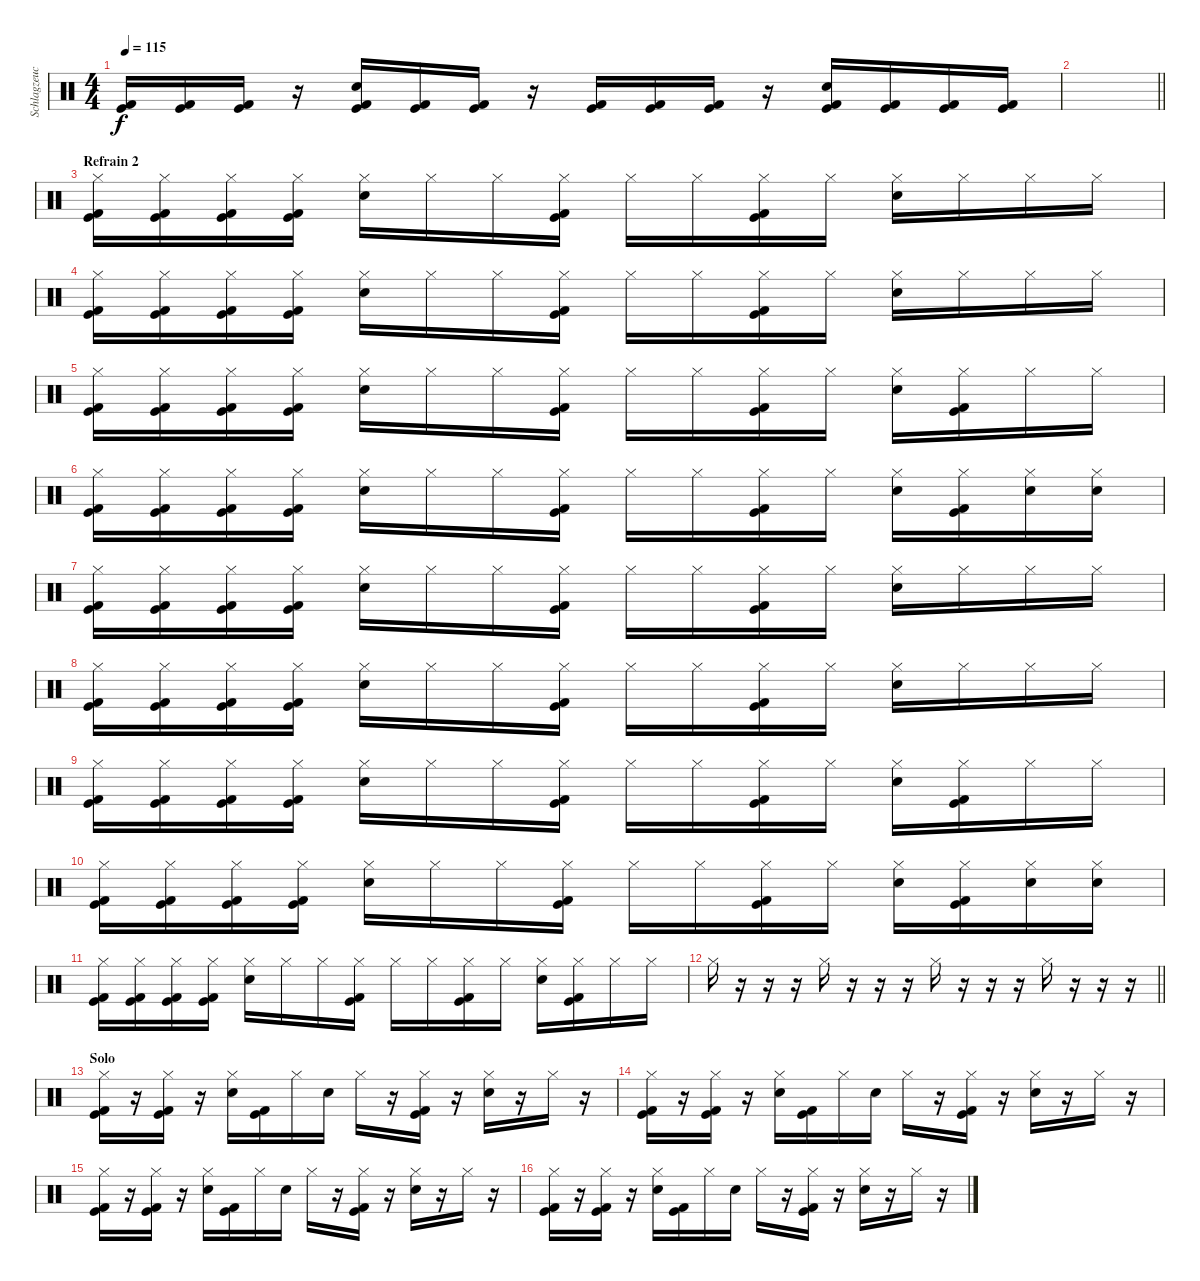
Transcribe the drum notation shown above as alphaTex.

\track ("Schlagzeuch" "Schlagzeuc") {instrument percussion}
\staff {score}
\articulation defaults
\ts (4 4)
\tempo 115
\clef neutral
\ks c
("Kick (hit)" "Kick (hit) 2").16{dy f} ("Kick (hit)" "Kick (hit) 2").16 ("Kick (hit)" "Kick (hit) 2").16 r.16 ("Kick (hit)" "Kick (hit) 2" "Electric Snare (hit)").16 ("Kick (hit)" "Kick (hit) 2").16 ("Kick (hit)" "Kick (hit) 2").16 r.16 ("Kick (hit)" "Kick (hit) 2").16 ("Kick (hit)" "Kick (hit) 2").16 ("Kick (hit)" "Kick (hit) 2").16 r.16 ("Kick (hit)" "Kick (hit) 2" "Electric Snare (hit)").16 ("Kick (hit)" "Kick (hit) 2").16 ("Kick (hit)" "Kick (hit) 2").16 ("Kick (hit)" "Kick (hit) 2").16 |
\barLineRight lightlight
|
\section ("" "Refrain 2")
("Hi-Hat (closed)" "Kick (hit)" "Kick (hit) 2").16 ("Hi-Hat (closed)" "Kick (hit)" "Kick (hit) 2").16 ("Hi-Hat (closed)" "Kick (hit)" "Kick (hit) 2").16 ("Hi-Hat (closed)" "Kick (hit)" "Kick (hit) 2").16 ("Hi-Hat (closed)" "Electric Snare (hit)").16 "Hi-Hat (closed)".16 "Hi-Hat (closed)".16 ("Hi-Hat (closed)" "Kick (hit)" "Kick (hit) 2").16 "Hi-Hat (closed)".16 "Hi-Hat (closed)".16 ("Hi-Hat (closed)" "Kick (hit)" "Kick (hit) 2").16 "Hi-Hat (closed)".16 ("Hi-Hat (closed)" "Electric Snare (hit)").16 "Hi-Hat (closed)".16 "Hi-Hat (closed)".16 "Hi-Hat (closed)".16 |
("Hi-Hat (closed)" "Kick (hit)" "Kick (hit) 2").16 ("Hi-Hat (closed)" "Kick (hit)" "Kick (hit) 2").16 ("Hi-Hat (closed)" "Kick (hit)" "Kick (hit) 2").16 ("Hi-Hat (closed)" "Kick (hit)" "Kick (hit) 2").16 ("Hi-Hat (closed)" "Electric Snare (hit)").16 "Hi-Hat (closed)".16 "Hi-Hat (closed)".16 ("Hi-Hat (closed)" "Kick (hit)" "Kick (hit) 2").16 "Hi-Hat (closed)".16 "Hi-Hat (closed)".16 ("Hi-Hat (closed)" "Kick (hit)" "Kick (hit) 2").16 "Hi-Hat (closed)".16 ("Hi-Hat (closed)" "Electric Snare (hit)").16 "Hi-Hat (closed)".16 "Hi-Hat (closed)".16 "Hi-Hat (closed)".16 |
("Hi-Hat (closed)" "Kick (hit)" "Kick (hit) 2").16 ("Hi-Hat (closed)" "Kick (hit)" "Kick (hit) 2").16 ("Hi-Hat (closed)" "Kick (hit)" "Kick (hit) 2").16 ("Hi-Hat (closed)" "Kick (hit)" "Kick (hit) 2").16 ("Hi-Hat (closed)" "Electric Snare (hit)").16 "Hi-Hat (closed)".16 "Hi-Hat (closed)".16 ("Hi-Hat (closed)" "Kick (hit)" "Kick (hit) 2").16 "Hi-Hat (closed)".16 "Hi-Hat (closed)".16 ("Hi-Hat (closed)" "Kick (hit)" "Kick (hit) 2").16 "Hi-Hat (closed)".16 ("Hi-Hat (closed)" "Electric Snare (hit)").16 ("Hi-Hat (closed)" "Kick (hit)" "Kick (hit) 2").16 "Hi-Hat (closed)".16 "Hi-Hat (closed)".16 |
("Hi-Hat (closed)" "Kick (hit)" "Kick (hit) 2").16 ("Hi-Hat (closed)" "Kick (hit)" "Kick (hit) 2").16 ("Hi-Hat (closed)" "Kick (hit)" "Kick (hit) 2").16 ("Hi-Hat (closed)" "Kick (hit)" "Kick (hit) 2").16 ("Hi-Hat (closed)" "Electric Snare (hit)").16 "Hi-Hat (closed)".16 "Hi-Hat (closed)".16 ("Hi-Hat (closed)" "Kick (hit)" "Kick (hit) 2").16 "Hi-Hat (closed)".16 "Hi-Hat (closed)".16 ("Hi-Hat (closed)" "Kick (hit)" "Kick (hit) 2").16 "Hi-Hat (closed)".16 ("Hi-Hat (closed)" "Electric Snare (hit)").16 ("Hi-Hat (closed)" "Kick (hit)" "Kick (hit) 2").16 ("Hi-Hat (closed)" "Electric Snare (hit)").16 ("Hi-Hat (closed)" "Electric Snare (hit)").16 |
("Hi-Hat (closed)" "Kick (hit)" "Kick (hit) 2").16 ("Hi-Hat (closed)" "Kick (hit)" "Kick (hit) 2").16 ("Hi-Hat (closed)" "Kick (hit)" "Kick (hit) 2").16 ("Hi-Hat (closed)" "Kick (hit)" "Kick (hit) 2").16 ("Hi-Hat (closed)" "Electric Snare (hit)").16 "Hi-Hat (closed)".16 "Hi-Hat (closed)".16 ("Hi-Hat (closed)" "Kick (hit)" "Kick (hit) 2").16 "Hi-Hat (closed)".16 "Hi-Hat (closed)".16 ("Hi-Hat (closed)" "Kick (hit)" "Kick (hit) 2").16 "Hi-Hat (closed)".16 ("Hi-Hat (closed)" "Electric Snare (hit)").16 "Hi-Hat (closed)".16 "Hi-Hat (closed)".16 "Hi-Hat (closed)".16 |
("Hi-Hat (closed)" "Kick (hit)" "Kick (hit) 2").16 ("Hi-Hat (closed)" "Kick (hit)" "Kick (hit) 2").16 ("Hi-Hat (closed)" "Kick (hit)" "Kick (hit) 2").16 ("Hi-Hat (closed)" "Kick (hit)" "Kick (hit) 2").16 ("Hi-Hat (closed)" "Electric Snare (hit)").16 "Hi-Hat (closed)".16 "Hi-Hat (closed)".16 ("Hi-Hat (closed)" "Kick (hit)" "Kick (hit) 2").16 "Hi-Hat (closed)".16 "Hi-Hat (closed)".16 ("Hi-Hat (closed)" "Kick (hit)" "Kick (hit) 2").16 "Hi-Hat (closed)".16 ("Hi-Hat (closed)" "Electric Snare (hit)").16 "Hi-Hat (closed)".16 "Hi-Hat (closed)".16 "Hi-Hat (closed)".16 |
("Hi-Hat (closed)" "Kick (hit)" "Kick (hit) 2").16 ("Hi-Hat (closed)" "Kick (hit)" "Kick (hit) 2").16 ("Hi-Hat (closed)" "Kick (hit)" "Kick (hit) 2").16 ("Hi-Hat (closed)" "Kick (hit)" "Kick (hit) 2").16 ("Hi-Hat (closed)" "Electric Snare (hit)").16 "Hi-Hat (closed)".16 "Hi-Hat (closed)".16 ("Hi-Hat (closed)" "Kick (hit)" "Kick (hit) 2").16 "Hi-Hat (closed)".16 "Hi-Hat (closed)".16 ("Hi-Hat (closed)" "Kick (hit)" "Kick (hit) 2").16 "Hi-Hat (closed)".16 ("Hi-Hat (closed)" "Electric Snare (hit)").16 ("Hi-Hat (closed)" "Kick (hit)" "Kick (hit) 2").16 "Hi-Hat (closed)".16 "Hi-Hat (closed)".16 |
("Hi-Hat (closed)" "Kick (hit)" "Kick (hit) 2").16 ("Hi-Hat (closed)" "Kick (hit)" "Kick (hit) 2").16 ("Hi-Hat (closed)" "Kick (hit)" "Kick (hit) 2").16 ("Hi-Hat (closed)" "Kick (hit)" "Kick (hit) 2").16 ("Hi-Hat (closed)" "Electric Snare (hit)").16 "Hi-Hat (closed)".16 "Hi-Hat (closed)".16 ("Hi-Hat (closed)" "Kick (hit)" "Kick (hit) 2").16 "Hi-Hat (closed)".16 "Hi-Hat (closed)".16 ("Hi-Hat (closed)" "Kick (hit)" "Kick (hit) 2").16 "Hi-Hat (closed)".16 ("Hi-Hat (closed)" "Electric Snare (hit)").16 ("Hi-Hat (closed)" "Kick (hit)" "Kick (hit) 2").16 ("Hi-Hat (closed)" "Electric Snare (hit)").16 ("Hi-Hat (closed)" "Electric Snare (hit)").16 |
("Hi-Hat (closed)" "Kick (hit)" "Kick (hit) 2").16 ("Hi-Hat (closed)" "Kick (hit)" "Kick (hit) 2").16 ("Hi-Hat (closed)" "Kick (hit)" "Kick (hit) 2").16 ("Hi-Hat (closed)" "Kick (hit)" "Kick (hit) 2").16 ("Hi-Hat (closed)" "Electric Snare (hit)").16 "Hi-Hat (closed)".16 "Hi-Hat (closed)".16 ("Hi-Hat (closed)" "Kick (hit)" "Kick (hit) 2").16 "Hi-Hat (closed)".16 "Hi-Hat (closed)".16 ("Hi-Hat (closed)" "Kick (hit)" "Kick (hit) 2").16 "Hi-Hat (closed)".16 ("Hi-Hat (closed)" "Electric Snare (hit)").16 ("Hi-Hat (closed)" "Kick (hit)" "Kick (hit) 2").16 "Hi-Hat (closed)".16 "Hi-Hat (closed)".16 |
\barLineRight lightlight "Hi-Hat (closed)".16
r.16 r.16 r.16 "Hi-Hat (closed)".16 r.16 r.16 r.16 "Hi-Hat (closed)".16 r.16 r.16 r.16 "Hi-Hat (closed)".16 r.16 r.16 r.16 |
\section ("" "Solo")
("Hi-Hat (closed)" "Kick (hit)" "Kick (hit) 2").16 r.16 ("Hi-Hat (closed)" "Kick (hit)" "Kick (hit) 2").16 r.16 ("Hi-Hat (closed)" "Electric Snare (hit)").16 ("Kick (hit)" "Kick (hit) 2").16 "Hi-Hat (closed)".16 "Electric Snare (hit)".16 "Hi-Hat (closed)".16 r.16 ("Hi-Hat (closed)" "Kick (hit)" "Kick (hit) 2").16 r.16 ("Hi-Hat (closed)" "Electric Snare (hit)").16 r.16 "Hi-Hat (closed)".16 r.16 |
("Hi-Hat (closed)" "Kick (hit)" "Kick (hit) 2").16 r.16 ("Hi-Hat (closed)" "Kick (hit)" "Kick (hit) 2").16 r.16 ("Hi-Hat (closed)" "Electric Snare (hit)").16 ("Kick (hit)" "Kick (hit) 2").16 "Hi-Hat (closed)".16 "Electric Snare (hit)".16 "Hi-Hat (closed)".16 r.16 ("Hi-Hat (closed)" "Kick (hit)" "Kick (hit) 2").16 r.16 ("Hi-Hat (closed)" "Electric Snare (hit)").16 r.16 "Hi-Hat (closed)".16 r.16 |
("Hi-Hat (closed)" "Kick (hit)" "Kick (hit) 2").16 r.16 ("Hi-Hat (closed)" "Kick (hit)" "Kick (hit) 2").16 r.16 ("Hi-Hat (closed)" "Electric Snare (hit)").16 ("Kick (hit)" "Kick (hit) 2").16 "Hi-Hat (closed)".16 "Electric Snare (hit)".16 "Hi-Hat (closed)".16 r.16 ("Hi-Hat (closed)" "Kick (hit)" "Kick (hit) 2").16 r.16 ("Hi-Hat (closed)" "Electric Snare (hit)").16 r.16 "Hi-Hat (closed)".16 r.16 |
("Hi-Hat (closed)" "Kick (hit)" "Kick (hit) 2").16 r.16 ("Hi-Hat (closed)" "Kick (hit)" "Kick (hit) 2").16 r.16 ("Hi-Hat (closed)" "Electric Snare (hit)").16 ("Kick (hit)" "Kick (hit) 2").16 "Hi-Hat (closed)".16 "Electric Snare (hit)".16 "Hi-Hat (closed)".16 r.16 ("Hi-Hat (closed)" "Kick (hit)" "Kick (hit) 2").16 r.16 ("Hi-Hat (closed)" "Electric Snare (hit)").16 r.16 "Hi-Hat (closed)".16 r.16
